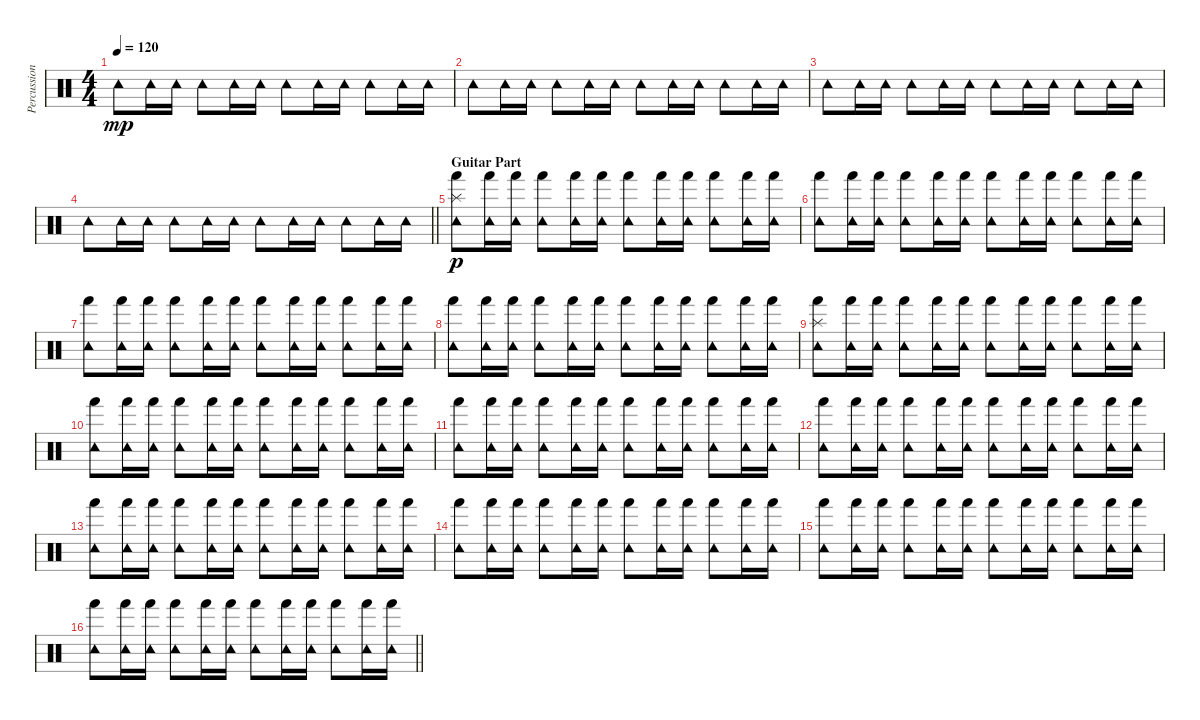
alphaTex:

\track ("Percussion 2" "Percussion") {instrument percussion}
\staff {score}
\articulation defaults
\ts (4 4)
\tempo 120
\clef neutral
\ks c "Tambourine (hit)".8{dy mp} "Tambourine (hit)".16 "Tambourine (hit)".16 "Tambourine (hit)".8 "Tambourine (hit)".16 "Tambourine (hit)".16 "Tambourine (hit)".8 "Tambourine (hit)".16 "Tambourine (hit)".16 "Tambourine (hit)".8 "Tambourine (hit)".16 "Tambourine (hit)".16
|
"Tambourine (hit)".8 "Tambourine (hit)".16 "Tambourine (hit)".16 "Tambourine (hit)".8 "Tambourine (hit)".16 "Tambourine (hit)".16 "Tambourine (hit)".8 "Tambourine (hit)".16 "Tambourine (hit)".16 "Tambourine (hit)".8 "Tambourine (hit)".16 "Tambourine (hit)".16 |
"Tambourine (hit)".8 "Tambourine (hit)".16 "Tambourine (hit)".16 "Tambourine (hit)".8 "Tambourine (hit)".16 "Tambourine (hit)".16 "Tambourine (hit)".8 "Tambourine (hit)".16 "Tambourine (hit)".16 "Tambourine (hit)".8 "Tambourine (hit)".16 "Tambourine (hit)".16 |
\barLineRight lightlight "Tambourine (hit)".8 "Tambourine (hit)".16 "Tambourine (hit)".16 "Tambourine (hit)".8 "Tambourine (hit)".16 "Tambourine (hit)".16 "Tambourine (hit)".8 "Tambourine (hit)".16 "Tambourine (hit)".16 "Tambourine (hit)".8 "Tambourine (hit)".16 "Tambourine (hit)".16
|
\section ("" "Guitar Part")
("Tambourine (hit)" "Splash (hit)" "Hand (hit)").8{dy p} ("Tambourine (hit)" "Hand (hit)").16 ("Tambourine (hit)" "Hand (hit)").16 ("Tambourine (hit)" "Hand (hit)").8 ("Tambourine (hit)" "Hand (hit)").16 ("Tambourine (hit)" "Hand (hit)").16 ("Tambourine (hit)" "Hand (hit)").8 ("Tambourine (hit)" "Hand (hit)").16 ("Tambourine (hit)" "Hand (hit)").16 ("Tambourine (hit)" "Hand (hit)").8 ("Tambourine (hit)" "Hand (hit)").16 ("Tambourine (hit)" "Hand (hit)").16 |
("Tambourine (hit)" "Hand (hit)").8 ("Tambourine (hit)" "Hand (hit)").16 ("Tambourine (hit)" "Hand (hit)").16 ("Tambourine (hit)" "Hand (hit)").8 ("Tambourine (hit)" "Hand (hit)").16 ("Tambourine (hit)" "Hand (hit)").16 ("Tambourine (hit)" "Hand (hit)").8 ("Tambourine (hit)" "Hand (hit)").16 ("Tambourine (hit)" "Hand (hit)").16 ("Tambourine (hit)" "Hand (hit)").8 ("Tambourine (hit)" "Hand (hit)").16 ("Tambourine (hit)" "Hand (hit)").16 |
("Tambourine (hit)" "Hand (hit)").8 ("Tambourine (hit)" "Hand (hit)").16 ("Tambourine (hit)" "Hand (hit)").16 ("Tambourine (hit)" "Hand (hit)").8 ("Tambourine (hit)" "Hand (hit)").16 ("Tambourine (hit)" "Hand (hit)").16 ("Tambourine (hit)" "Hand (hit)").8 ("Tambourine (hit)" "Hand (hit)").16 ("Tambourine (hit)" "Hand (hit)").16 ("Tambourine (hit)" "Hand (hit)").8 ("Tambourine (hit)" "Hand (hit)").16 ("Tambourine (hit)" "Hand (hit)").16 |
("Tambourine (hit)" "Hand (hit)").8 ("Tambourine (hit)" "Hand (hit)").16 ("Tambourine (hit)" "Hand (hit)").16 ("Tambourine (hit)" "Hand (hit)").8 ("Tambourine (hit)" "Hand (hit)").16 ("Tambourine (hit)" "Hand (hit)").16 ("Tambourine (hit)" "Hand (hit)").8 ("Tambourine (hit)" "Hand (hit)").16 ("Tambourine (hit)" "Hand (hit)").16 ("Tambourine (hit)" "Hand (hit)").8 ("Tambourine (hit)" "Hand (hit)").16 ("Tambourine (hit)" "Hand (hit)").16 |
("Tambourine (hit)" "Splash (hit)" "Hand (hit)").8 ("Tambourine (hit)" "Hand (hit)").16 ("Tambourine (hit)" "Hand (hit)").16 ("Tambourine (hit)" "Hand (hit)").8 ("Tambourine (hit)" "Hand (hit)").16 ("Tambourine (hit)" "Hand (hit)").16 ("Tambourine (hit)" "Hand (hit)").8 ("Tambourine (hit)" "Hand (hit)").16 ("Tambourine (hit)" "Hand (hit)").16 ("Tambourine (hit)" "Hand (hit)").8 ("Tambourine (hit)" "Hand (hit)").16 ("Tambourine (hit)" "Hand (hit)").16 |
("Tambourine (hit)" "Hand (hit)").8 ("Tambourine (hit)" "Hand (hit)").16 ("Tambourine (hit)" "Hand (hit)").16 ("Tambourine (hit)" "Hand (hit)").8 ("Tambourine (hit)" "Hand (hit)").16 ("Tambourine (hit)" "Hand (hit)").16 ("Tambourine (hit)" "Hand (hit)").8 ("Tambourine (hit)" "Hand (hit)").16 ("Tambourine (hit)" "Hand (hit)").16 ("Tambourine (hit)" "Hand (hit)").8 ("Tambourine (hit)" "Hand (hit)").16 ("Tambourine (hit)" "Hand (hit)").16 |
("Tambourine (hit)" "Hand (hit)").8 ("Tambourine (hit)" "Hand (hit)").16 ("Tambourine (hit)" "Hand (hit)").16 ("Tambourine (hit)" "Hand (hit)").8 ("Tambourine (hit)" "Hand (hit)").16 ("Tambourine (hit)" "Hand (hit)").16 ("Tambourine (hit)" "Hand (hit)").8 ("Tambourine (hit)" "Hand (hit)").16 ("Tambourine (hit)" "Hand (hit)").16 ("Tambourine (hit)" "Hand (hit)").8 ("Tambourine (hit)" "Hand (hit)").16 ("Tambourine (hit)" "Hand (hit)").16 |
("Tambourine (hit)" "Hand (hit)").8 ("Tambourine (hit)" "Hand (hit)").16 ("Tambourine (hit)" "Hand (hit)").16 ("Tambourine (hit)" "Hand (hit)").8 ("Tambourine (hit)" "Hand (hit)").16 ("Tambourine (hit)" "Hand (hit)").16 ("Tambourine (hit)" "Hand (hit)").8 ("Tambourine (hit)" "Hand (hit)").16 ("Tambourine (hit)" "Hand (hit)").16 ("Tambourine (hit)" "Hand (hit)").8 ("Tambourine (hit)" "Hand (hit)").16 ("Tambourine (hit)" "Hand (hit)").16 |
("Tambourine (hit)" "Hand (hit)").8 ("Tambourine (hit)" "Hand (hit)").16 ("Tambourine (hit)" "Hand (hit)").16 ("Tambourine (hit)" "Hand (hit)").8 ("Tambourine (hit)" "Hand (hit)").16 ("Tambourine (hit)" "Hand (hit)").16 ("Tambourine (hit)" "Hand (hit)").8 ("Tambourine (hit)" "Hand (hit)").16 ("Tambourine (hit)" "Hand (hit)").16 ("Tambourine (hit)" "Hand (hit)").8 ("Tambourine (hit)" "Hand (hit)").16 ("Tambourine (hit)" "Hand (hit)").16 |
("Tambourine (hit)" "Hand (hit)").8 ("Tambourine (hit)" "Hand (hit)").16 ("Tambourine (hit)" "Hand (hit)").16 ("Tambourine (hit)" "Hand (hit)").8 ("Tambourine (hit)" "Hand (hit)").16 ("Tambourine (hit)" "Hand (hit)").16 ("Tambourine (hit)" "Hand (hit)").8 ("Tambourine (hit)" "Hand (hit)").16 ("Tambourine (hit)" "Hand (hit)").16 ("Tambourine (hit)" "Hand (hit)").8 ("Tambourine (hit)" "Hand (hit)").16 ("Tambourine (hit)" "Hand (hit)").16 |
("Tambourine (hit)" "Hand (hit)").8 ("Tambourine (hit)" "Hand (hit)").16 ("Tambourine (hit)" "Hand (hit)").16 ("Tambourine (hit)" "Hand (hit)").8 ("Tambourine (hit)" "Hand (hit)").16 ("Tambourine (hit)" "Hand (hit)").16 ("Tambourine (hit)" "Hand (hit)").8 ("Tambourine (hit)" "Hand (hit)").16 ("Tambourine (hit)" "Hand (hit)").16 ("Tambourine (hit)" "Hand (hit)").8 ("Tambourine (hit)" "Hand (hit)").16 ("Tambourine (hit)" "Hand (hit)").16 |
\barLineRight lightlight
("Tambourine (hit)" "Hand (hit)").8 ("Tambourine (hit)" "Hand (hit)").16 ("Tambourine (hit)" "Hand (hit)").16 ("Tambourine (hit)" "Hand (hit)").8 ("Tambourine (hit)" "Hand (hit)").16 ("Tambourine (hit)" "Hand (hit)").16 ("Tambourine (hit)" "Hand (hit)").8 ("Tambourine (hit)" "Hand (hit)").16 ("Tambourine (hit)" "Hand (hit)").16 ("Tambourine (hit)" "Hand (hit)").8 ("Tambourine (hit)" "Hand (hit)").16 ("Tambourine (hit)" "Hand (hit)").16
